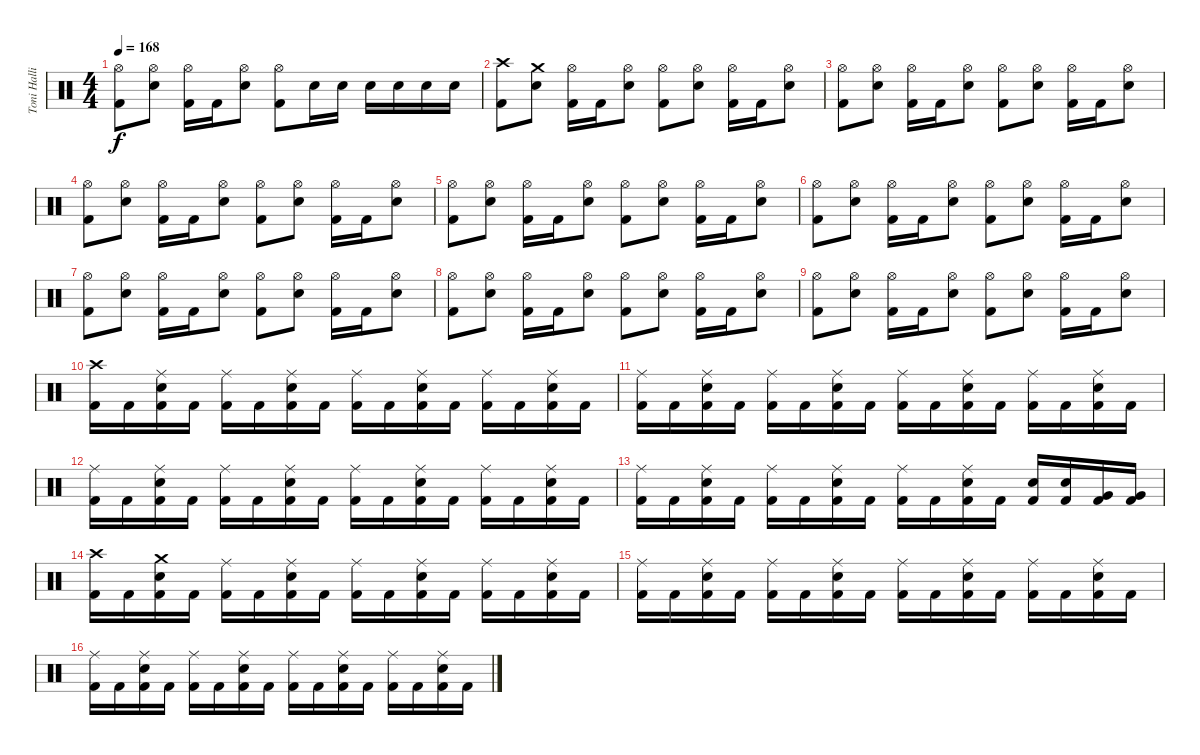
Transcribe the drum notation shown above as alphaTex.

\track ("Toni Hallio" "Toni Halli") {instrument percussion}
\staff {score}
\articulation defaults
\ts (4 4)
\tempo 168
\clef neutral
\ks c
("Hi-Hat (open)" "Kick (hit) 2").8{dy f} ("Hi-Hat (open)" "Snare (hit) 2").8 ("Hi-Hat (open)" "Kick (hit) 2").16 "Kick (hit) 2".16 ("Hi-Hat (open)" "Snare (hit) 2").8 ("Hi-Hat (open)" "Kick (hit) 2").8 "Snare (hit) 2".16 "Snare (hit) 2".16 "Snare (hit) 2".16 "Snare (hit) 2".16 "Snare (hit) 2".16 "Snare (hit) 2".16 |
("Crash high (hit)" "Kick (hit) 2").8 ("Crash medium (hit)" "Snare (hit) 2").8 ("Hi-Hat (open)" "Kick (hit) 2").16 "Kick (hit) 2".16 ("Hi-Hat (open)" "Snare (hit) 2").8 ("Hi-Hat (open)" "Kick (hit) 2").8 ("Hi-Hat (open)" "Snare (hit) 2").8 ("Hi-Hat (open)" "Kick (hit) 2").16 "Kick (hit) 2".16 ("Hi-Hat (open)" "Snare (hit) 2").8 |
("Hi-Hat (open)" "Kick (hit) 2").8 ("Hi-Hat (open)" "Snare (hit) 2").8 ("Hi-Hat (open)" "Kick (hit) 2").16 "Kick (hit) 2".16 ("Hi-Hat (open)" "Snare (hit) 2").8 ("Hi-Hat (open)" "Kick (hit) 2").8 ("Hi-Hat (open)" "Snare (hit) 2").8 ("Hi-Hat (open)" "Kick (hit) 2").16 "Kick (hit) 2".16 ("Hi-Hat (open)" "Snare (hit) 2").8 |
("Hi-Hat (open)" "Kick (hit) 2").8 ("Hi-Hat (open)" "Snare (hit) 2").8 ("Hi-Hat (open)" "Kick (hit) 2").16 "Kick (hit) 2".16 ("Hi-Hat (open)" "Snare (hit) 2").8 ("Hi-Hat (open)" "Kick (hit) 2").8 ("Hi-Hat (open)" "Snare (hit) 2").8 ("Hi-Hat (open)" "Kick (hit) 2").16 "Kick (hit) 2".16 ("Hi-Hat (open)" "Snare (hit) 2").8 |
("Hi-Hat (open)" "Kick (hit) 2").8 ("Hi-Hat (open)" "Snare (hit) 2").8 ("Hi-Hat (open)" "Kick (hit) 2").16 "Kick (hit) 2".16 ("Hi-Hat (open)" "Snare (hit) 2").8 ("Hi-Hat (open)" "Kick (hit) 2").8 ("Hi-Hat (open)" "Snare (hit) 2").8 ("Hi-Hat (open)" "Kick (hit) 2").16 "Kick (hit) 2".16 ("Hi-Hat (open)" "Snare (hit) 2").8 |
("Hi-Hat (open)" "Kick (hit) 2").8 ("Hi-Hat (open)" "Snare (hit) 2").8 ("Hi-Hat (open)" "Kick (hit) 2").16 "Kick (hit) 2".16 ("Hi-Hat (open)" "Snare (hit) 2").8 ("Hi-Hat (open)" "Kick (hit) 2").8 ("Hi-Hat (open)" "Snare (hit) 2").8 ("Hi-Hat (open)" "Kick (hit) 2").16 "Kick (hit) 2".16 ("Hi-Hat (open)" "Snare (hit) 2").8 |
("Hi-Hat (open)" "Kick (hit) 2").8 ("Hi-Hat (open)" "Snare (hit) 2").8 ("Hi-Hat (open)" "Kick (hit) 2").16 "Kick (hit) 2".16 ("Hi-Hat (open)" "Snare (hit) 2").8 ("Hi-Hat (open)" "Kick (hit) 2").8 ("Hi-Hat (open)" "Snare (hit) 2").8 ("Hi-Hat (open)" "Kick (hit) 2").16 "Kick (hit) 2".16 ("Hi-Hat (open)" "Snare (hit) 2").8 |
("Hi-Hat (open)" "Kick (hit) 2").8 ("Hi-Hat (open)" "Snare (hit) 2").8 ("Hi-Hat (open)" "Kick (hit) 2").16 "Kick (hit) 2".16 ("Hi-Hat (open)" "Snare (hit) 2").8 ("Hi-Hat (open)" "Kick (hit) 2").8 ("Hi-Hat (open)" "Snare (hit) 2").8 ("Hi-Hat (open)" "Kick (hit) 2").16 "Kick (hit) 2".16 ("Hi-Hat (open)" "Snare (hit) 2").8 |
("Hi-Hat (open)" "Kick (hit) 2").8 ("Hi-Hat (open)" "Snare (hit) 2").8 ("Hi-Hat (open)" "Kick (hit) 2").16 "Kick (hit) 2".16 ("Hi-Hat (open)" "Snare (hit) 2").8 ("Hi-Hat (open)" "Kick (hit) 2").8 ("Hi-Hat (open)" "Snare (hit) 2").8 ("Hi-Hat (open)" "Kick (hit) 2").16 "Kick (hit) 2".16 ("Hi-Hat (open)" "Snare (hit) 2").8 |
("Crash high (hit)" "Kick (hit) 2").16 "Kick (hit) 2".16 ("Ride (middle)" "Snare (hit) 2" "Kick (hit) 2").16 "Kick (hit) 2".16 ("Ride (middle)" "Kick (hit) 2").16 "Kick (hit) 2".16 ("Ride (middle)" "Snare (hit) 2" "Kick (hit) 2").16 "Kick (hit) 2".16 ("Ride (middle)" "Kick (hit) 2").16 "Kick (hit) 2".16 ("Ride (middle)" "Snare (hit) 2" "Kick (hit) 2").16 "Kick (hit) 2".16 ("Ride (middle)" "Kick (hit) 2").16 "Kick (hit) 2".16 ("Ride (middle)" "Snare (hit) 2" "Kick (hit) 2").16 "Kick (hit) 2".16 |
("Ride (middle)" "Kick (hit) 2").16 "Kick (hit) 2".16 ("Ride (middle)" "Snare (hit) 2" "Kick (hit) 2").16 "Kick (hit) 2".16 ("Ride (middle)" "Kick (hit) 2").16 "Kick (hit) 2".16 ("Ride (middle)" "Snare (hit) 2" "Kick (hit) 2").16 "Kick (hit) 2".16 ("Ride (middle)" "Kick (hit) 2").16 "Kick (hit) 2".16 ("Ride (middle)" "Snare (hit) 2" "Kick (hit) 2").16 "Kick (hit) 2".16 ("Ride (middle)" "Kick (hit) 2").16 "Kick (hit) 2".16 ("Ride (middle)" "Snare (hit) 2" "Kick (hit) 2").16 "Kick (hit) 2".16 |
("Ride (middle)" "Kick (hit) 2").16 "Kick (hit) 2".16 ("Ride (middle)" "Snare (hit) 2" "Kick (hit) 2").16 "Kick (hit) 2".16 ("Ride (middle)" "Kick (hit) 2").16 "Kick (hit) 2".16 ("Ride (middle)" "Snare (hit) 2" "Kick (hit) 2").16 "Kick (hit) 2".16 ("Ride (middle)" "Kick (hit) 2").16 "Kick (hit) 2".16 ("Ride (middle)" "Snare (hit) 2" "Kick (hit) 2").16 "Kick (hit) 2".16 ("Ride (middle)" "Kick (hit) 2").16 "Kick (hit) 2".16 ("Ride (middle)" "Snare (hit) 2" "Kick (hit) 2").16 "Kick (hit) 2".16 |
("Ride (middle)" "Kick (hit) 2").16 "Kick (hit) 2".16 ("Ride (middle)" "Snare (hit) 2" "Kick (hit) 2").16 "Kick (hit) 2".16 ("Ride (middle)" "Kick (hit) 2").16 "Kick (hit) 2".16 ("Ride (middle)" "Snare (hit) 2" "Kick (hit) 2").16 "Kick (hit) 2".16 ("Ride (middle)" "Kick (hit) 2").16 "Kick (hit) 2".16 ("Ride (middle)" "Snare (hit) 2" "Kick (hit) 2").16 "Kick (hit) 2".16 ("Snare (hit) 2" "Kick (hit) 2").16 ("Snare (hit) 2" "Kick (hit) 2").16 ("Very Low Tom (hit)" "Kick (hit) 2").16 ("Very Low Tom (hit)" "Kick (hit) 2").16 |
("Crash high (hit)" "Kick (hit) 2").16 "Kick (hit) 2".16 ("Crash medium (hit)" "Snare (hit) 2" "Kick (hit) 2").16 "Kick (hit) 2".16 ("Ride (middle)" "Kick (hit) 2").16 "Kick (hit) 2".16 ("Ride (middle)" "Snare (hit) 2" "Kick (hit) 2").16 "Kick (hit) 2".16 ("Ride (middle)" "Kick (hit) 2").16 "Kick (hit) 2".16 ("Ride (middle)" "Snare (hit) 2" "Kick (hit) 2").16 "Kick (hit) 2".16 ("Ride (middle)" "Kick (hit) 2").16 "Kick (hit) 2".16 ("Ride (middle)" "Snare (hit) 2" "Kick (hit) 2").16 "Kick (hit) 2".16 |
("Ride (middle)" "Kick (hit) 2").16 "Kick (hit) 2".16 ("Ride (middle)" "Snare (hit) 2" "Kick (hit) 2").16 "Kick (hit) 2".16 ("Ride (middle)" "Kick (hit) 2").16 "Kick (hit) 2".16 ("Ride (middle)" "Snare (hit) 2" "Kick (hit) 2").16 "Kick (hit) 2".16 ("Ride (middle)" "Kick (hit) 2").16 "Kick (hit) 2".16 ("Ride (middle)" "Snare (hit) 2" "Kick (hit) 2").16 "Kick (hit) 2".16 ("Ride (middle)" "Kick (hit) 2").16 "Kick (hit) 2".16 ("Ride (middle)" "Snare (hit) 2" "Kick (hit) 2").16 "Kick (hit) 2".16 |
("Ride (middle)" "Kick (hit) 2").16 "Kick (hit) 2".16 ("Ride (middle)" "Snare (hit) 2" "Kick (hit) 2").16 "Kick (hit) 2".16 ("Ride (middle)" "Kick (hit) 2").16 "Kick (hit) 2".16 ("Ride (middle)" "Snare (hit) 2" "Kick (hit) 2").16 "Kick (hit) 2".16 ("Ride (middle)" "Kick (hit) 2").16 "Kick (hit) 2".16 ("Ride (middle)" "Snare (hit) 2" "Kick (hit) 2").16 "Kick (hit) 2".16 ("Ride (middle)" "Kick (hit) 2").16 "Kick (hit) 2".16 ("Ride (middle)" "Snare (hit) 2" "Kick (hit) 2").16 "Kick (hit) 2".16
